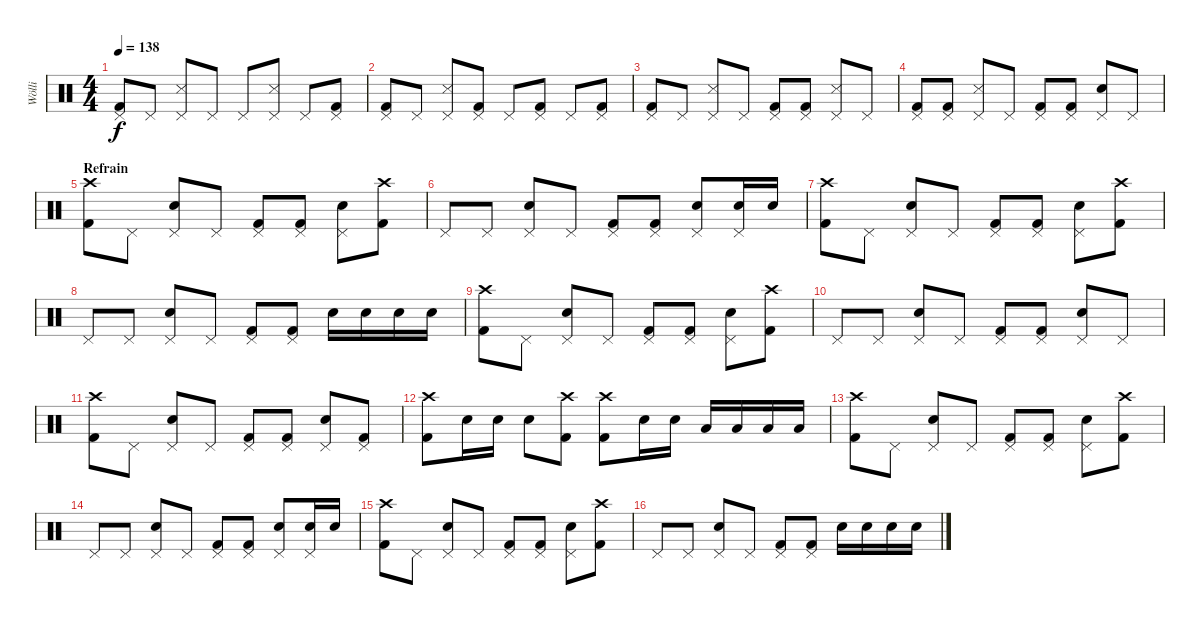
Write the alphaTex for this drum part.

\track ("Wölli" "Wölli") {instrument percussion}
\staff {score}
\articulation defaults
\ts (4 4)
\tempo 138
\clef neutral
\ks c
("Pedal Hi-Hat (hit)" "Kick (hit) 2").8{dy f} "Pedal Hi-Hat (hit)".8 ("Pedal Hi-Hat (hit)" "Snare (side stick) 3").8 "Pedal Hi-Hat (hit)".8 "Pedal Hi-Hat (hit)".8 ("Pedal Hi-Hat (hit)" "Snare (side stick) 3").8 "Pedal Hi-Hat (hit)".8 ("Pedal Hi-Hat (hit)" "Kick (hit) 2").8 |
("Pedal Hi-Hat (hit)" "Kick (hit) 2").8 "Pedal Hi-Hat (hit)".8 ("Pedal Hi-Hat (hit)" "Snare (side stick) 3").8 ("Pedal Hi-Hat (hit)" "Kick (hit) 2").8 "Pedal Hi-Hat (hit)".8 ("Pedal Hi-Hat (hit)" "Kick (hit) 2").8 "Pedal Hi-Hat (hit)".8 ("Pedal Hi-Hat (hit)" "Kick (hit) 2").8 |
("Pedal Hi-Hat (hit)" "Kick (hit) 2").8 "Pedal Hi-Hat (hit)".8 ("Pedal Hi-Hat (hit)" "Snare (side stick) 3").8 "Pedal Hi-Hat (hit)".8 ("Pedal Hi-Hat (hit)" "Kick (hit) 2").8 ("Pedal Hi-Hat (hit)" "Kick (hit) 2").8 ("Pedal Hi-Hat (hit)" "Snare (side stick) 3").8 "Pedal Hi-Hat (hit)".8 |
("Pedal Hi-Hat (hit)" "Kick (hit) 2").8 ("Pedal Hi-Hat (hit)" "Kick (hit) 2").8 ("Pedal Hi-Hat (hit)" "Snare (side stick) 3").8 "Pedal Hi-Hat (hit)".8 ("Pedal Hi-Hat (hit)" "Kick (hit) 2").8 ("Pedal Hi-Hat (hit)" "Kick (hit) 2").8 ("Pedal Hi-Hat (hit)" "Snare (hit) 2").8 "Pedal Hi-Hat (hit)".8 |
\section ("" "Refrain")
("Crash high (hit)" "Kick (hit) 2").8 "Pedal Hi-Hat (hit)".8 ("Pedal Hi-Hat (hit)" "Snare (hit) 2").8 "Pedal Hi-Hat (hit)".8 ("Pedal Hi-Hat (hit)" "Kick (hit) 2").8 ("Pedal Hi-Hat (hit)" "Kick (hit) 2").8 ("Pedal Hi-Hat (hit)" "Snare (hit) 2").8 ("Crash high (hit)" "Kick (hit) 2").8 |
"Pedal Hi-Hat (hit)".8 "Pedal Hi-Hat (hit)".8 ("Pedal Hi-Hat (hit)" "Snare (hit) 2").8 "Pedal Hi-Hat (hit)".8 ("Pedal Hi-Hat (hit)" "Kick (hit) 2").8 ("Pedal Hi-Hat (hit)" "Kick (hit) 2").8 ("Pedal Hi-Hat (hit)" "Snare (hit) 2").8 ("Pedal Hi-Hat (hit)" "Snare (hit) 2").16 "Snare (hit) 2".16 |
("Crash high (hit)" "Kick (hit) 2").8 "Pedal Hi-Hat (hit)".8 ("Pedal Hi-Hat (hit)" "Snare (hit) 2").8 "Pedal Hi-Hat (hit)".8 ("Pedal Hi-Hat (hit)" "Kick (hit) 2").8 ("Pedal Hi-Hat (hit)" "Kick (hit) 2").8 ("Pedal Hi-Hat (hit)" "Snare (hit) 2").8 ("Crash high (hit)" "Kick (hit) 2").8 |
"Pedal Hi-Hat (hit)".8 "Pedal Hi-Hat (hit)".8 ("Pedal Hi-Hat (hit)" "Snare (hit) 2").8 "Pedal Hi-Hat (hit)".8 ("Pedal Hi-Hat (hit)" "Kick (hit) 2").8 ("Pedal Hi-Hat (hit)" "Kick (hit) 2").8 "Snare (hit) 2".16 "Snare (hit) 2".16 "Snare (hit) 2".16 "Snare (hit) 2".16 |
("Crash high (hit)" "Kick (hit) 2").8 "Pedal Hi-Hat (hit)".8 ("Pedal Hi-Hat (hit)" "Snare (hit) 2").8 "Pedal Hi-Hat (hit)".8 ("Pedal Hi-Hat (hit)" "Kick (hit) 2").8 ("Pedal Hi-Hat (hit)" "Kick (hit) 2").8 ("Pedal Hi-Hat (hit)" "Snare (hit) 2").8 ("Crash high (hit)" "Kick (hit) 2").8 |
"Pedal Hi-Hat (hit)".8 "Pedal Hi-Hat (hit)".8 ("Pedal Hi-Hat (hit)" "Snare (hit) 2").8 "Pedal Hi-Hat (hit)".8 ("Pedal Hi-Hat (hit)" "Kick (hit) 2").8 ("Pedal Hi-Hat (hit)" "Kick (hit) 2").8 ("Pedal Hi-Hat (hit)" "Snare (hit) 2").8 "Pedal Hi-Hat (hit)".8 |
("Crash high (hit)" "Kick (hit) 2").8 "Pedal Hi-Hat (hit)".8 ("Pedal Hi-Hat (hit)" "Snare (hit) 2").8 "Pedal Hi-Hat (hit)".8 ("Pedal Hi-Hat (hit)" "Kick (hit) 2").8 ("Pedal Hi-Hat (hit)" "Kick (hit) 2").8 ("Pedal Hi-Hat (hit)" "Snare (hit) 2").8 ("Pedal Hi-Hat (hit)" "Kick (hit) 2").8 |
("Crash high (hit)" "Kick (hit) 2").8 "Snare (hit) 2".16 "Snare (hit) 2".16 "Snare (hit) 2".8 ("Crash high (hit)" "Kick (hit) 2").8 ("Crash high (hit)" "Kick (hit) 2").8 "Snare (hit) 2".16 "Snare (hit) 2".16 "Low Tom (hit)".16 "Low Tom (hit)".16 "Low Tom (hit)".16 "Low Tom (hit)".16 |
("Crash high (hit)" "Kick (hit) 2").8 "Pedal Hi-Hat (hit)".8 ("Pedal Hi-Hat (hit)" "Snare (hit) 2").8 "Pedal Hi-Hat (hit)".8 ("Pedal Hi-Hat (hit)" "Kick (hit) 2").8 ("Pedal Hi-Hat (hit)" "Kick (hit) 2").8 ("Pedal Hi-Hat (hit)" "Snare (hit) 2").8 ("Crash high (hit)" "Kick (hit) 2").8 |
"Pedal Hi-Hat (hit)".8 "Pedal Hi-Hat (hit)".8 ("Pedal Hi-Hat (hit)" "Snare (hit) 2").8 "Pedal Hi-Hat (hit)".8 ("Pedal Hi-Hat (hit)" "Kick (hit) 2").8 ("Pedal Hi-Hat (hit)" "Kick (hit) 2").8 ("Pedal Hi-Hat (hit)" "Snare (hit) 2").8 ("Pedal Hi-Hat (hit)" "Snare (hit) 2").16 "Snare (hit) 2".16 |
("Crash high (hit)" "Kick (hit) 2").8 "Pedal Hi-Hat (hit)".8 ("Pedal Hi-Hat (hit)" "Snare (hit) 2").8 "Pedal Hi-Hat (hit)".8 ("Pedal Hi-Hat (hit)" "Kick (hit) 2").8 ("Pedal Hi-Hat (hit)" "Kick (hit) 2").8 ("Pedal Hi-Hat (hit)" "Snare (hit) 2").8 ("Crash high (hit)" "Kick (hit) 2").8 |
"Pedal Hi-Hat (hit)".8 "Pedal Hi-Hat (hit)".8 ("Pedal Hi-Hat (hit)" "Snare (hit) 2").8 "Pedal Hi-Hat (hit)".8 ("Pedal Hi-Hat (hit)" "Kick (hit) 2").8 ("Pedal Hi-Hat (hit)" "Kick (hit) 2").8 "Snare (hit) 2".16 "Snare (hit) 2".16 "Snare (hit) 2".16 "Snare (hit) 2".16
